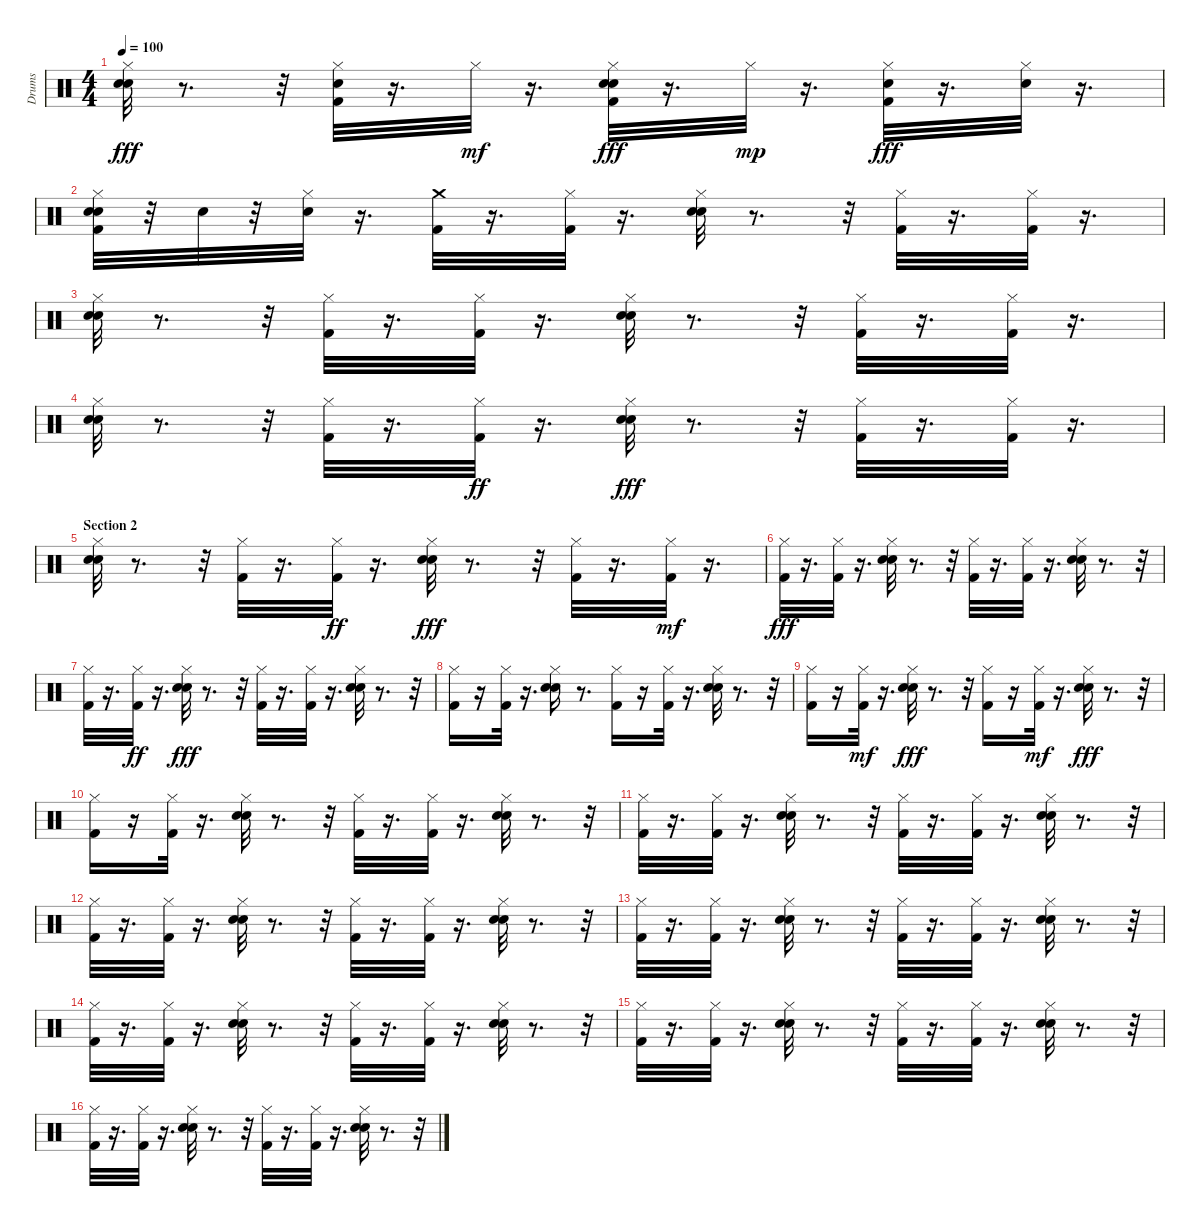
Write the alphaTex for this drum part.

\track ("Drums" "Drums") {instrument percussion}
\staff {score}
\articulation defaults
\ts (4 4)
\tempo 100
\clef neutral
\ks c
("Snare (hit) 2" "Hi-Hat (closed)" "Hand Clap (hit)").32{dy fff} r.8{d} r.32 ("Hi-Hat (closed)" "Snare (hit) 2" "Kick (hit) 2").32 r.16{d} "Hi-Hat (closed)".32{dy mf} r.16{d} ("Hi-Hat (closed)" "Hand Clap (hit)" "Kick (hit) 2" "Snare (hit) 2").32{dy fff} r.16{d} "Hi-Hat (closed)".32{dy mp} r.16{d} ("Hi-Hat (closed)" "Snare (hit) 2" "Kick (hit) 2").32{dy fff} r.16{d} ("Snare (hit) 2" "Hi-Hat (closed)").32 r.16{d} |
("Hand Clap (hit)" "Kick (hit) 2" "Hi-Hat (closed)" "Snare (hit) 2").32 r.32 "Snare (hit) 2".32 r.32 ("Snare (hit) 2" "Hi-Hat (closed)").32 r.16{d} ("Crash medium (hit)" "Kick (hit) 2").32 r.16{d} ("Hi-Hat (closed)" "Kick (hit) 2").32 r.16{d} ("Hand Clap (hit)" "Hi-Hat (closed)" "Snare (hit) 2").32 r.8{d} r.32 ("Kick (hit) 2" "Hi-Hat (closed)").32 r.16{d} ("Kick (hit) 2" "Hi-Hat (closed)").32 r.16{d} |
("Hi-Hat (closed)" "Hand Clap (hit)" "Snare (hit) 2").32 r.8{d} r.32 ("Hi-Hat (closed)" "Kick (hit) 2").32 r.16{d} ("Kick (hit) 2" "Hi-Hat (closed)").32 r.16{d} ("Snare (hit) 2" "Hi-Hat (closed)" "Hand Clap (hit)").32 r.8{d} r.32 ("Hi-Hat (closed)" "Kick (hit) 2").32 r.16{d} ("Hi-Hat (closed)" "Kick (hit) 2").32 r.16{d} |
("Snare (hit) 2" "Hand Clap (hit)" "Hi-Hat (closed)").32 r.8{d} r.32 ("Hi-Hat (closed)" "Kick (hit) 2").32 r.16{d} ("Kick (hit) 2" "Hi-Hat (closed)").32{dy ff} r.16{d} ("Snare (hit) 2" "Hi-Hat (closed)" "Hand Clap (hit)").32{dy fff} r.8{d} r.32 ("Kick (hit) 2" "Hi-Hat (closed)").32 r.16{d} ("Hi-Hat (closed)" "Kick (hit) 2").32 r.16{d} |
\section ("" "Section 2")
("Hi-Hat (closed)" "Snare (hit) 2" "Hand Clap (hit)").32 r.8{d} r.32 ("Hi-Hat (closed)" "Kick (hit) 2").32 r.16{d} ("Kick (hit) 2" "Hi-Hat (closed)").32{dy ff} r.16{d} ("Hi-Hat (closed)" "Hand Clap (hit)" "Snare (hit) 2").32{dy fff} r.8{d} r.32 ("Hi-Hat (closed)" "Kick (hit) 2").32 r.16{d} ("Kick (hit) 2" "Hi-Hat (closed)").32{dy mf} r.16{d} |
("Hi-Hat (closed)" "Kick (hit) 2").32{dy fff} r.16{d} ("Hi-Hat (closed)" "Kick (hit) 2").32 r.16{d} ("Snare (hit) 2" "Hand Clap (hit)" "Hi-Hat (closed)").32 r.8{d} r.32 ("Kick (hit) 2" "Hi-Hat (closed)").32 r.16{d} ("Hi-Hat (closed)" "Kick (hit) 2").32 r.16{d} ("Hi-Hat (closed)" "Snare (hit) 2" "Hand Clap (hit)").32 r.8{d} r.32 |
("Kick (hit) 2" "Hi-Hat (closed)").32 r.16{d} ("Kick (hit) 2" "Hi-Hat (closed)").32{dy ff} r.16{d} ("Hi-Hat (closed)" "Snare (hit) 2" "Hand Clap (hit)").32{dy fff} r.8{d} r.32 ("Kick (hit) 2" "Hi-Hat (closed)").32 r.16{d} ("Kick (hit) 2" "Hi-Hat (closed)").32 r.16{d} ("Hand Clap (hit)" "Snare (hit) 2" "Hi-Hat (closed)").32 r.8{d} r.32 |
("Kick (hit) 2" "Hi-Hat (closed)").16 r.16 ("Hi-Hat (closed)" "Kick (hit) 2").32 r.16{d} ("Hi-Hat (closed)" "Hand Clap (hit)" "Snare (hit) 2").16 r.8{d} ("Hi-Hat (closed)" "Kick (hit) 2").16 r.16 ("Hi-Hat (closed)" "Kick (hit) 2").32 r.16{d} ("Snare (hit) 2" "Hand Clap (hit)" "Hi-Hat (closed)").32 r.8{d} r.32 |
("Kick (hit) 2" "Hi-Hat (closed)").16 r.16 ("Kick (hit) 2" "Hi-Hat (closed)").32{dy mf} r.16{d} ("Snare (hit) 2" "Hand Clap (hit)" "Hi-Hat (closed)").32{dy fff} r.8{d} r.32 ("Hi-Hat (closed)" "Kick (hit) 2").16 r.16 ("Kick (hit) 2" "Hi-Hat (closed)").32{dy mf} r.16{d} ("Hi-Hat (closed)" "Snare (hit) 2" "Hand Clap (hit)").32{dy fff} r.8{d} r.32 |
("Hi-Hat (closed)" "Kick (hit) 2").16 r.16 ("Hi-Hat (closed)" "Kick (hit) 2").32 r.16{d} ("Hand Clap (hit)" "Hi-Hat (closed)" "Snare (hit) 2").32 r.8{d} r.32 ("Hi-Hat (closed)" "Kick (hit) 2").32 r.16{d} ("Hi-Hat (closed)" "Kick (hit) 2").32 r.16{d} ("Hand Clap (hit)" "Snare (hit) 2" "Hi-Hat (closed)").32 r.8{d} r.32 |
("Hi-Hat (closed)" "Kick (hit) 2").32 r.16{d} ("Hi-Hat (closed)" "Kick (hit) 2").32 r.16{d} ("Hand Clap (hit)" "Snare (hit) 2" "Hi-Hat (closed)").32 r.8{d} r.32 ("Hi-Hat (closed)" "Kick (hit) 2").32 r.16{d} ("Hi-Hat (closed)" "Kick (hit) 2").32 r.16{d} ("Hand Clap (hit)" "Snare (hit) 2" "Hi-Hat (closed)").32 r.8{d} r.32 |
("Kick (hit) 2" "Hi-Hat (closed)").32 r.16{d} ("Hi-Hat (closed)" "Kick (hit) 2").32 r.16{d} ("Hand Clap (hit)" "Hi-Hat (closed)" "Snare (hit) 2").32 r.8{d} r.32 ("Hi-Hat (closed)" "Kick (hit) 2").32 r.16{d} ("Hi-Hat (closed)" "Kick (hit) 2").32 r.16{d} ("Hand Clap (hit)" "Hi-Hat (closed)" "Snare (hit) 2").32 r.8{d} r.32 |
("Hi-Hat (closed)" "Kick (hit) 2").32 r.16{d} ("Kick (hit) 2" "Hi-Hat (closed)").32 r.16{d} ("Hand Clap (hit)" "Snare (hit) 2" "Hi-Hat (closed)").32 r.8{d} r.32 ("Kick (hit) 2" "Hi-Hat (closed)").32 r.16{d} ("Kick (hit) 2" "Hi-Hat (closed)").32 r.16{d} ("Hi-Hat (closed)" "Hand Clap (hit)" "Snare (hit) 2").32 r.8{d} r.32 |
("Kick (hit) 2" "Hi-Hat (closed)").32 r.16{d} ("Kick (hit) 2" "Hi-Hat (closed)").32 r.16{d} ("Snare (hit) 2" "Hand Clap (hit)" "Hi-Hat (closed)").32 r.8{d} r.32 ("Kick (hit) 2" "Hi-Hat (closed)").32 r.16{d} ("Hi-Hat (closed)" "Kick (hit) 2").32 r.16{d} ("Hand Clap (hit)" "Snare (hit) 2" "Hi-Hat (closed)").32 r.8{d} r.32 |
("Hi-Hat (closed)" "Kick (hit) 2").32 r.16{d} ("Hi-Hat (closed)" "Kick (hit) 2").32 r.16{d} ("Snare (hit) 2" "Hand Clap (hit)" "Hi-Hat (closed)").32 r.8{d} r.32 ("Hi-Hat (closed)" "Kick (hit) 2").32 r.16{d} ("Hi-Hat (closed)" "Kick (hit) 2").32 r.16{d} ("Hand Clap (hit)" "Snare (hit) 2" "Hi-Hat (closed)").32 r.8{d} r.32 |
("Hi-Hat (closed)" "Kick (hit) 2").32 r.16{d} ("Kick (hit) 2" "Hi-Hat (closed)").32 r.16{d} ("Hand Clap (hit)" "Hi-Hat (closed)" "Snare (hit) 2").32 r.8{d} r.32 ("Hi-Hat (closed)" "Kick (hit) 2").32 r.16{d} ("Hi-Hat (closed)" "Kick (hit) 2").32 r.16{d} ("Snare (hit) 2" "Hand Clap (hit)" "Hi-Hat (closed)").32 r.8{d} r.32
